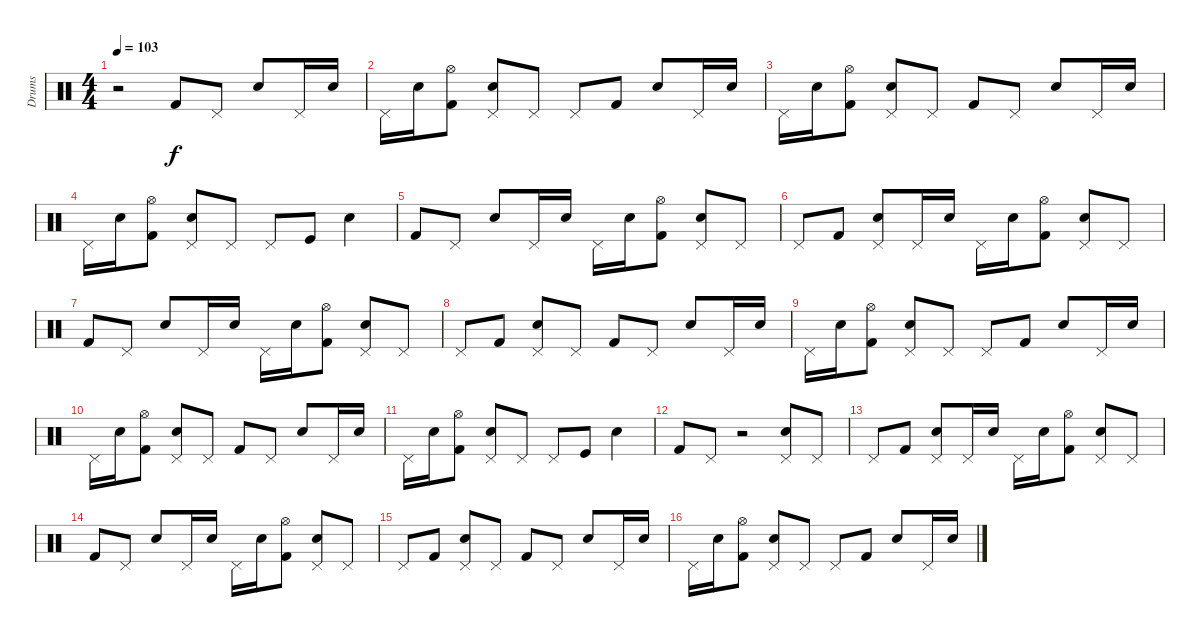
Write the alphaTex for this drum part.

\track ("Drums" "Drums") {instrument percussion}
\staff {score}
\articulation defaults
\ts (4 4)
\tempo 103
\clef neutral
\ks c
r.2{dy f} "Kick (hit) 2".8 "Pedal Hi-Hat (hit)".8 "Electric Snare (hit)".8 "Pedal Hi-Hat (hit)".16 "Electric Snare (hit)".16 |
"Pedal Hi-Hat (hit)".16 "Electric Snare (hit)".16 ("Hi-Hat (open)" "Kick (hit) 2").8 ("Pedal Hi-Hat (hit)" "Electric Snare (hit)").8 "Pedal Hi-Hat (hit)".8 "Pedal Hi-Hat (hit)".8 "Kick (hit) 2".8 "Electric Snare (hit)".8 "Pedal Hi-Hat (hit)".16 "Electric Snare (hit)".16 |
"Pedal Hi-Hat (hit)".16 "Electric Snare (hit)".16 ("Hi-Hat (open)" "Kick (hit) 2").8 ("Pedal Hi-Hat (hit)" "Electric Snare (hit)").8 "Pedal Hi-Hat (hit)".8 "Kick (hit) 2".8 "Pedal Hi-Hat (hit)".8 "Electric Snare (hit)".8 "Pedal Hi-Hat (hit)".16 "Electric Snare (hit)".16 |
"Pedal Hi-Hat (hit)".16 "Electric Snare (hit)".16 ("Hi-Hat (open)" "Kick (hit) 2").8 ("Pedal Hi-Hat (hit)" "Electric Snare (hit)").8 "Pedal Hi-Hat (hit)".8 "Pedal Hi-Hat (hit)".8 "Kick (hit)".8 "Electric Snare (hit)".4 |
"Kick (hit) 2".8 "Pedal Hi-Hat (hit)".8 "Electric Snare (hit)".8 "Pedal Hi-Hat (hit)".16 "Electric Snare (hit)".16 "Pedal Hi-Hat (hit)".16 "Electric Snare (hit)".16 ("Hi-Hat (open)" "Kick (hit) 2").8 ("Pedal Hi-Hat (hit)" "Electric Snare (hit)").8 "Pedal Hi-Hat (hit)".8 |
"Pedal Hi-Hat (hit)".8 "Kick (hit) 2".8 ("Pedal Hi-Hat (hit)" "Electric Snare (hit)").8 "Pedal Hi-Hat (hit)".16 "Electric Snare (hit)".16 "Pedal Hi-Hat (hit)".16 "Electric Snare (hit)".16 ("Hi-Hat (open)" "Kick (hit) 2").8 ("Pedal Hi-Hat (hit)" "Electric Snare (hit)").8 "Pedal Hi-Hat (hit)".8 |
"Kick (hit) 2".8 "Pedal Hi-Hat (hit)".8 "Electric Snare (hit)".8 "Pedal Hi-Hat (hit)".16 "Electric Snare (hit)".16 "Pedal Hi-Hat (hit)".16 "Electric Snare (hit)".16 ("Hi-Hat (open)" "Kick (hit) 2").8 ("Pedal Hi-Hat (hit)" "Electric Snare (hit)").8 "Pedal Hi-Hat (hit)".8 |
"Pedal Hi-Hat (hit)".8 "Kick (hit) 2".8 ("Pedal Hi-Hat (hit)" "Electric Snare (hit)").8 "Pedal Hi-Hat (hit)".8 "Kick (hit) 2".8 "Pedal Hi-Hat (hit)".8 "Electric Snare (hit)".8 "Pedal Hi-Hat (hit)".16 "Electric Snare (hit)".16 |
"Pedal Hi-Hat (hit)".16 "Electric Snare (hit)".16 ("Hi-Hat (open)" "Kick (hit) 2").8 ("Pedal Hi-Hat (hit)" "Electric Snare (hit)").8 "Pedal Hi-Hat (hit)".8 "Pedal Hi-Hat (hit)".8 "Kick (hit) 2".8 "Electric Snare (hit)".8 "Pedal Hi-Hat (hit)".16 "Electric Snare (hit)".16 |
"Pedal Hi-Hat (hit)".16 "Electric Snare (hit)".16 ("Hi-Hat (open)" "Kick (hit) 2").8 ("Pedal Hi-Hat (hit)" "Electric Snare (hit)").8 "Pedal Hi-Hat (hit)".8 "Kick (hit) 2".8 "Pedal Hi-Hat (hit)".8 "Electric Snare (hit)".8 "Pedal Hi-Hat (hit)".16 "Electric Snare (hit)".16 |
"Pedal Hi-Hat (hit)".16 "Electric Snare (hit)".16 ("Hi-Hat (open)" "Kick (hit) 2").8 ("Pedal Hi-Hat (hit)" "Electric Snare (hit)").8 "Pedal Hi-Hat (hit)".8 "Pedal Hi-Hat (hit)".8 "Kick (hit)".8 "Electric Snare (hit)".4 |
"Kick (hit) 2".8 "Pedal Hi-Hat (hit)".8 r.2 ("Pedal Hi-Hat (hit)" "Electric Snare (hit)").8 "Pedal Hi-Hat (hit)".8 |
"Pedal Hi-Hat (hit)".8 "Kick (hit) 2".8 ("Pedal Hi-Hat (hit)" "Electric Snare (hit)").8 "Pedal Hi-Hat (hit)".16 "Electric Snare (hit)".16 "Pedal Hi-Hat (hit)".16 "Electric Snare (hit)".16 ("Hi-Hat (open)" "Kick (hit) 2").8 ("Pedal Hi-Hat (hit)" "Electric Snare (hit)").8 "Pedal Hi-Hat (hit)".8 |
"Kick (hit) 2".8 "Pedal Hi-Hat (hit)".8 "Electric Snare (hit)".8 "Pedal Hi-Hat (hit)".16 "Electric Snare (hit)".16 "Pedal Hi-Hat (hit)".16 "Electric Snare (hit)".16 ("Hi-Hat (open)" "Kick (hit) 2").8 ("Pedal Hi-Hat (hit)" "Electric Snare (hit)").8 "Pedal Hi-Hat (hit)".8 |
"Pedal Hi-Hat (hit)".8 "Kick (hit) 2".8 ("Pedal Hi-Hat (hit)" "Electric Snare (hit)").8 "Pedal Hi-Hat (hit)".8 "Kick (hit) 2".8 "Pedal Hi-Hat (hit)".8 "Electric Snare (hit)".8 "Pedal Hi-Hat (hit)".16 "Electric Snare (hit)".16 |
"Pedal Hi-Hat (hit)".16 "Electric Snare (hit)".16 ("Hi-Hat (open)" "Kick (hit) 2").8 ("Pedal Hi-Hat (hit)" "Electric Snare (hit)").8 "Pedal Hi-Hat (hit)".8 "Pedal Hi-Hat (hit)".8 "Kick (hit) 2".8 "Electric Snare (hit)".8 "Pedal Hi-Hat (hit)".16 "Electric Snare (hit)".16
